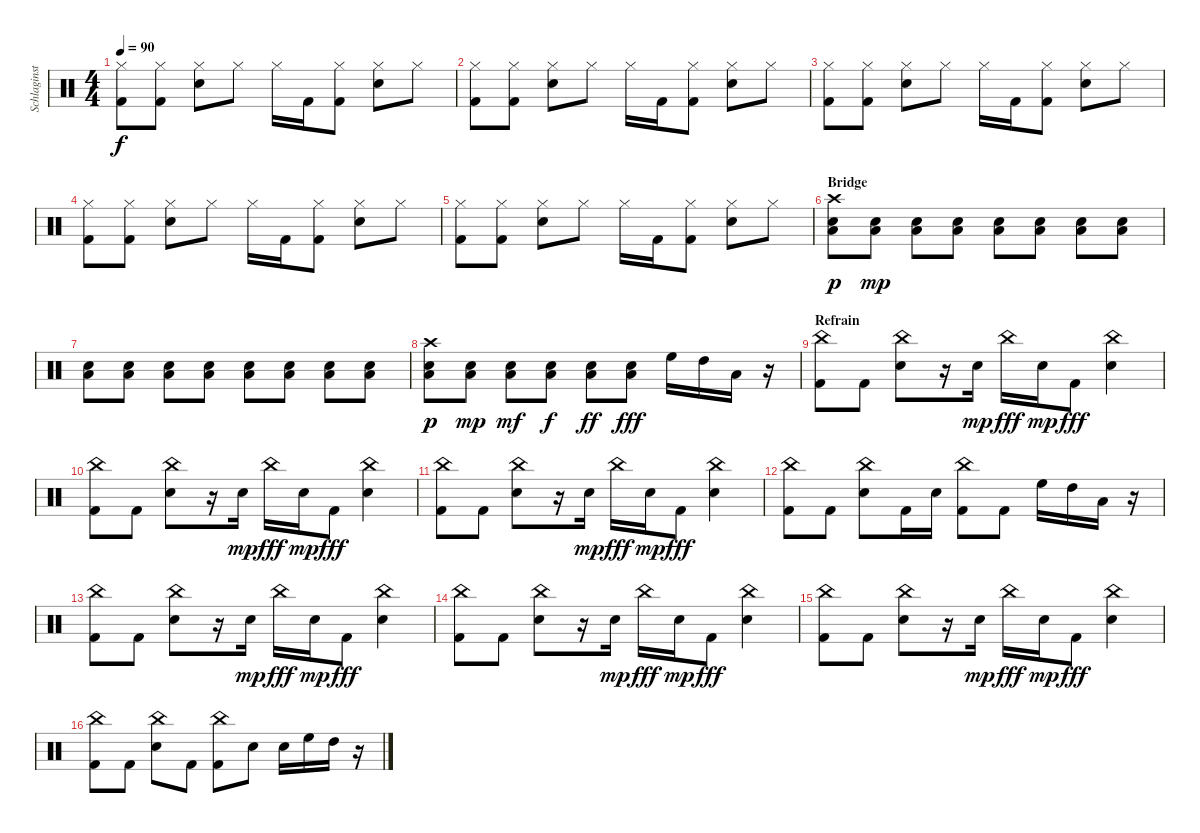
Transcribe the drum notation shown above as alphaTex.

\track ("Schlaginstrumente - Auswahl" "Schlaginst") {instrument percussion}
\staff {score}
\articulation defaults
\ts (4 4)
\tempo 90
\clef neutral
\ks c
("Hi-Hat (closed)" "Kick (hit) 2").8{dy f} ("Hi-Hat (closed)" "Kick (hit) 2").8 ("Hi-Hat (closed)" "Snare (hit) 2").8 "Hi-Hat (closed)".8 "Hi-Hat (closed)".16 "Kick (hit) 2".16 ("Hi-Hat (closed)" "Kick (hit) 2").8 ("Hi-Hat (closed)" "Snare (hit) 2").8 "Hi-Hat (closed)".8 |
("Hi-Hat (closed)" "Kick (hit) 2").8 ("Hi-Hat (closed)" "Kick (hit) 2").8 ("Hi-Hat (closed)" "Snare (hit) 2").8 "Hi-Hat (closed)".8 "Hi-Hat (closed)".16 "Kick (hit) 2".16 ("Hi-Hat (closed)" "Kick (hit) 2").8 ("Hi-Hat (closed)" "Snare (hit) 2").8 "Hi-Hat (closed)".8 |
("Hi-Hat (closed)" "Kick (hit) 2").8 ("Hi-Hat (closed)" "Kick (hit) 2").8 ("Hi-Hat (closed)" "Snare (hit) 2").8 "Hi-Hat (closed)".8 "Hi-Hat (closed)".16 "Kick (hit) 2".16 ("Hi-Hat (closed)" "Kick (hit) 2").8 ("Hi-Hat (closed)" "Snare (hit) 2").8 "Hi-Hat (closed)".8 |
("Hi-Hat (closed)" "Kick (hit) 2").8 ("Hi-Hat (closed)" "Kick (hit) 2").8 ("Hi-Hat (closed)" "Snare (hit) 2").8 "Hi-Hat (closed)".8 "Hi-Hat (closed)".16 "Kick (hit) 2".16 ("Hi-Hat (closed)" "Kick (hit) 2").8 ("Hi-Hat (closed)" "Snare (hit) 2").8 "Hi-Hat (closed)".8 |
("Hi-Hat (closed)" "Kick (hit) 2").8 ("Hi-Hat (closed)" "Kick (hit) 2").8 ("Hi-Hat (closed)" "Snare (hit) 2").8 "Hi-Hat (closed)".8 "Hi-Hat (closed)".16 "Kick (hit) 2".16 ("Hi-Hat (closed)" "Kick (hit) 2").8 ("Hi-Hat (closed)" "Snare (hit) 2").8 "Hi-Hat (closed)".8 |
\section ("" "Bridge")
("Crash high (hit)" "Low Tom (hit)" "Snare (hit) 2").8{dy p} ("Low Tom (hit)" "Snare (hit) 2").8{dy mp} ("Low Tom (hit)" "Snare (hit) 2").8 ("Low Tom (hit)" "Snare (hit) 2").8 ("Low Tom (hit)" "Snare (hit) 2").8 ("Low Tom (hit)" "Snare (hit) 2").8 ("Low Tom (hit)" "Snare (hit) 2").8 ("Low Tom (hit)" "Snare (hit) 2").8 |
("Low Tom (hit)" "Snare (hit) 2").8 ("Low Tom (hit)" "Snare (hit) 2").8 ("Low Tom (hit)" "Snare (hit) 2").8 ("Low Tom (hit)" "Snare (hit) 2").8 ("Low Tom (hit)" "Snare (hit) 2").8 ("Low Tom (hit)" "Snare (hit) 2").8 ("Low Tom (hit)" "Snare (hit) 2").8 ("Low Tom (hit)" "Snare (hit) 2").8 |
("Crash high (hit)" "Low Tom (hit)" "Snare (hit) 2").8{dy p} ("Low Tom (hit)" "Snare (hit) 2").8{dy mp} ("Low Tom (hit)" "Snare (hit) 2").8{dy mf} ("Low Tom (hit)" "Snare (hit) 2").8{dy f} ("Low Tom (hit)" "Snare (hit) 2").8{dy ff} ("Low Tom (hit)" "Snare (hit) 2").8{dy fff} "High Floor Tom (hit)".16 "High Tom (hit)".16 "Low Tom (hit)".16 r.16 |
\section ("" "Refrain")
("China (hit)" "Kick (hit) 2").8 "Kick (hit) 2".8 ("China (hit)" "Snare (hit) 2").8 r.16 "Snare (hit) 2".16{dy mp} "China (hit)".16{dy fff} "Snare (hit) 2".16{dy mp} "Kick (hit) 2".8{dy fff} ("China (hit)" "Snare (hit) 2").4 |
("China (hit)" "Kick (hit) 2").8 "Kick (hit) 2".8 ("China (hit)" "Snare (hit) 2").8 r.16 "Snare (hit) 2".16{dy mp} "China (hit)".16{dy fff} "Snare (hit) 2".16{dy mp} "Kick (hit) 2".8{dy fff} ("China (hit)" "Snare (hit) 2").4 |
("China (hit)" "Kick (hit) 2").8 "Kick (hit) 2".8 ("China (hit)" "Snare (hit) 2").8 r.16 "Snare (hit) 2".16{dy mp} "China (hit)".16{dy fff} "Snare (hit) 2".16{dy mp} "Kick (hit) 2".8{dy fff} ("China (hit)" "Snare (hit) 2").4 |
("China (hit)" "Kick (hit) 2").8 "Kick (hit) 2".8 ("China (hit)" "Snare (hit) 2").8 "Kick (hit) 2".16 "Snare (hit) 2".16 ("China (hit)" "Kick (hit) 2").8 "Kick (hit) 2".8 "High Floor Tom (hit)".16 "High Tom (hit)".16 "Low Tom (hit)".16 r.16 |
("China (hit)" "Kick (hit) 2").8 "Kick (hit) 2".8 ("China (hit)" "Snare (hit) 2").8 r.16 "Snare (hit) 2".16{dy mp} "China (hit)".16{dy fff} "Snare (hit) 2".16{dy mp} "Kick (hit) 2".8{dy fff} ("China (hit)" "Snare (hit) 2").4 |
("China (hit)" "Kick (hit) 2").8 "Kick (hit) 2".8 ("China (hit)" "Snare (hit) 2").8 r.16 "Snare (hit) 2".16{dy mp} "China (hit)".16{dy fff} "Snare (hit) 2".16{dy mp} "Kick (hit) 2".8{dy fff} ("China (hit)" "Snare (hit) 2").4 |
("China (hit)" "Kick (hit) 2").8 "Kick (hit) 2".8 ("China (hit)" "Snare (hit) 2").8 r.16 "Snare (hit) 2".16{dy mp} "China (hit)".16{dy fff} "Snare (hit) 2".16{dy mp} "Kick (hit) 2".8{dy fff} ("China (hit)" "Snare (hit) 2").4 |
("China (hit)" "Kick (hit) 2").8 "Kick (hit) 2".8 ("China (hit)" "Snare (hit) 2").8 "Kick (hit) 2".8 ("China (hit)" "Kick (hit) 2").8 "Snare (hit) 2".8 "Snare (hit) 2".16 "High Floor Tom (hit)".16 "High Tom (hit)".16 r.16
